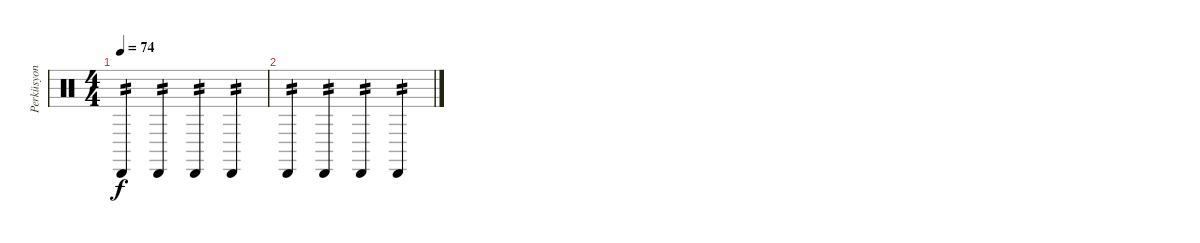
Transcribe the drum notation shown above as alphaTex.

\track ("Perküsyon" "Perküsyon") {instrument percussion}
\staff {score}
\articulation defaults
\ts (4 4)
\tempo 74
\clef neutral
\ks c "Cabasa (hit)".4{tp 2 dy f} "Cabasa (hit)".4{tp 2} "Cabasa (hit)".4{tp 2} "Cabasa (hit)".4{tp 2}
|
"Cabasa (hit)".4{tp 2} "Cabasa (hit)".4{tp 2} "Cabasa (hit)".4{tp 2} "Cabasa (hit)".4{tp 2}
